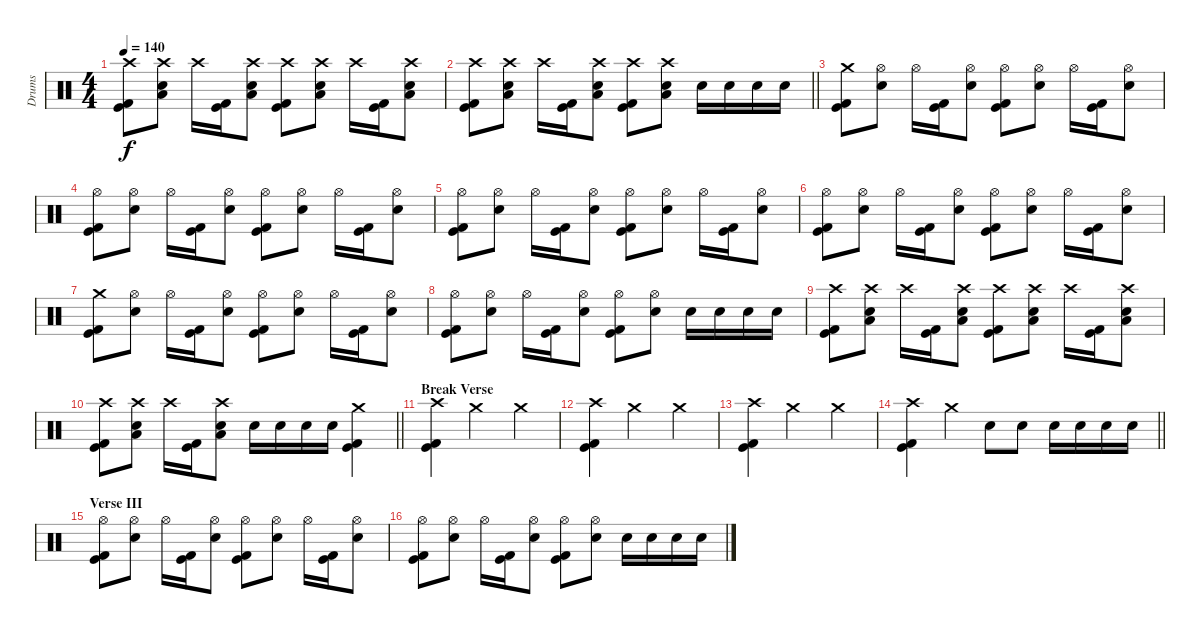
\track ("Drums" "Drums") {instrument percussion}
\staff {score}
\articulation defaults
\ts (4 4)
\tempo 140
\clef neutral
\ks c
("Crash high (hit)" "Kick (hit)" "Kick (hit) 2").8{dy f} ("Crash high (hit)" "Electric Snare (hit)" "Low Floor Tom (hit)").8 "Crash high (hit)".16 ("Kick (hit)" "Kick (hit) 2").16 ("Crash high (hit)" "Electric Snare (hit)" "Low Floor Tom (hit)").8 ("Crash high (hit)" "Kick (hit)" "Kick (hit) 2").8 ("Crash high (hit)" "Electric Snare (hit)" "Low Floor Tom (hit)").8 "Crash high (hit)".16 ("Kick (hit)" "Kick (hit) 2").16 ("Crash high (hit)" "Electric Snare (hit)" "Low Floor Tom (hit)").8 |
\barLineRight lightlight
("Crash high (hit)" "Kick (hit)" "Kick (hit) 2").8 ("Crash high (hit)" "Electric Snare (hit)" "Low Floor Tom (hit)").8 "Crash high (hit)".16 ("Kick (hit)" "Kick (hit) 2").16 ("Crash high (hit)" "Electric Snare (hit)" "Low Floor Tom (hit)").8 ("Crash high (hit)" "Kick (hit)" "Kick (hit) 2").8 ("Crash high (hit)" "Electric Snare (hit)" "Low Floor Tom (hit)").8 "Electric Snare (hit)".16 "Electric Snare (hit)".16 "Electric Snare (hit)".16 "Electric Snare (hit)".16 |
("Crash medium (hit)" "Kick (hit)" "Kick (hit) 2").8 ("Hi-Hat (open)" "Electric Snare (hit)").8 "Hi-Hat (open)".16 ("Kick (hit)" "Kick (hit) 2").16 ("Hi-Hat (open)" "Electric Snare (hit)").8 ("Hi-Hat (open)" "Kick (hit)" "Kick (hit) 2").8 ("Hi-Hat (open)" "Electric Snare (hit)").8 "Hi-Hat (open)".16 ("Kick (hit)" "Kick (hit) 2").16 ("Hi-Hat (open)" "Electric Snare (hit)").8 |
("Hi-Hat (open)" "Kick (hit)" "Kick (hit) 2").8 ("Hi-Hat (open)" "Electric Snare (hit)").8 "Hi-Hat (open)".16 ("Kick (hit)" "Kick (hit) 2").16 ("Hi-Hat (open)" "Electric Snare (hit)").8 ("Hi-Hat (open)" "Kick (hit)" "Kick (hit) 2").8 ("Hi-Hat (open)" "Electric Snare (hit)").8 "Hi-Hat (open)".16 ("Kick (hit)" "Kick (hit) 2").16 ("Hi-Hat (open)" "Electric Snare (hit)").8 |
("Hi-Hat (open)" "Kick (hit)" "Kick (hit) 2").8 ("Hi-Hat (open)" "Electric Snare (hit)").8 "Hi-Hat (open)".16 ("Kick (hit)" "Kick (hit) 2").16 ("Hi-Hat (open)" "Electric Snare (hit)").8 ("Hi-Hat (open)" "Kick (hit)" "Kick (hit) 2").8 ("Hi-Hat (open)" "Electric Snare (hit)").8 "Hi-Hat (open)".16 ("Kick (hit)" "Kick (hit) 2").16 ("Hi-Hat (open)" "Electric Snare (hit)").8 |
("Hi-Hat (open)" "Kick (hit)" "Kick (hit) 2").8 ("Hi-Hat (open)" "Electric Snare (hit)").8 "Hi-Hat (open)".16 ("Kick (hit)" "Kick (hit) 2").16 ("Hi-Hat (open)" "Electric Snare (hit)").8 ("Hi-Hat (open)" "Kick (hit)" "Kick (hit) 2").8 ("Hi-Hat (open)" "Electric Snare (hit)").8 "Hi-Hat (open)".16 ("Kick (hit)" "Kick (hit) 2").16 ("Hi-Hat (open)" "Electric Snare (hit)").8 |
("Crash medium (hit)" "Kick (hit)" "Kick (hit) 2").8 ("Hi-Hat (open)" "Electric Snare (hit)").8 "Hi-Hat (open)".16 ("Kick (hit)" "Kick (hit) 2").16 ("Hi-Hat (open)" "Electric Snare (hit)").8 ("Hi-Hat (open)" "Kick (hit)" "Kick (hit) 2").8 ("Hi-Hat (open)" "Electric Snare (hit)").8 "Hi-Hat (open)".16 ("Kick (hit)" "Kick (hit) 2").16 ("Hi-Hat (open)" "Electric Snare (hit)").8 |
("Hi-Hat (open)" "Kick (hit)" "Kick (hit) 2").8 ("Hi-Hat (open)" "Electric Snare (hit)").8 "Hi-Hat (open)".16 ("Kick (hit)" "Kick (hit) 2").16 ("Hi-Hat (open)" "Electric Snare (hit)").8 ("Hi-Hat (open)" "Kick (hit)" "Kick (hit) 2").8 ("Hi-Hat (open)" "Electric Snare (hit)").8 "Electric Snare (hit)".16 "Electric Snare (hit)".16 "Electric Snare (hit)".16 "Electric Snare (hit)".16 |
("Crash high (hit)" "Kick (hit)" "Kick (hit) 2").8 ("Crash high (hit)" "Electric Snare (hit)" "Low Floor Tom (hit)").8 "Crash high (hit)".16 ("Kick (hit)" "Kick (hit) 2").16 ("Crash high (hit)" "Electric Snare (hit)" "Low Floor Tom (hit)").8 ("Crash high (hit)" "Kick (hit)" "Kick (hit) 2").8 ("Crash high (hit)" "Electric Snare (hit)" "Low Floor Tom (hit)").8 "Crash high (hit)".16 ("Kick (hit)" "Kick (hit) 2").16 ("Crash high (hit)" "Electric Snare (hit)" "Low Floor Tom (hit)").8 |
\barLineRight lightlight
("Crash high (hit)" "Kick (hit)" "Kick (hit) 2").8 ("Crash high (hit)" "Electric Snare (hit)" "Low Floor Tom (hit)").8 "Crash high (hit)".16 ("Kick (hit)" "Kick (hit) 2").16 ("Crash high (hit)" "Electric Snare (hit)" "Low Floor Tom (hit)").8 "Electric Snare (hit)".16 "Electric Snare (hit)".16 "Electric Snare (hit)".16 "Electric Snare (hit)".16 ("Crash medium (hit)" "Kick (hit)" "Kick (hit) 2").4 |
\section ("" "Break Verse")
("Crash high (hit)" "Kick (hit)" "Kick (hit) 2").4 "Crash medium (hit)".2 "Crash medium (hit)".4 |
("Crash high (hit)" "Kick (hit)" "Kick (hit) 2").4 "Crash medium (hit)".2 "Crash medium (hit)".4 |
("Crash high (hit)" "Kick (hit)" "Kick (hit) 2").4 "Crash medium (hit)".2 "Crash medium (hit)".4 |
\barLineRight lightlight
("Crash high (hit)" "Kick (hit)" "Kick (hit) 2").4 "Crash medium (hit)".4 "Electric Snare (hit)".8 "Electric Snare (hit)".8 "Electric Snare (hit)".16 "Electric Snare (hit)".16 "Electric Snare (hit)".16 "Electric Snare (hit)".16 |
\section ("" "Verse III")
("Hi-Hat (open)" "Kick (hit)" "Kick (hit) 2").8 ("Hi-Hat (open)" "Electric Snare (hit)").8 "Hi-Hat (open)".16 ("Kick (hit)" "Kick (hit) 2").16 ("Hi-Hat (open)" "Electric Snare (hit)").8 ("Hi-Hat (open)" "Kick (hit)" "Kick (hit) 2").8 ("Hi-Hat (open)" "Electric Snare (hit)").8 "Hi-Hat (open)".16 ("Kick (hit)" "Kick (hit) 2").16 ("Hi-Hat (open)" "Electric Snare (hit)").8 |
("Hi-Hat (open)" "Kick (hit)" "Kick (hit) 2").8 ("Hi-Hat (open)" "Electric Snare (hit)").8 "Hi-Hat (open)".16 ("Kick (hit)" "Kick (hit) 2").16 ("Hi-Hat (open)" "Electric Snare (hit)").8 ("Hi-Hat (open)" "Kick (hit)" "Kick (hit) 2").8 ("Hi-Hat (open)" "Electric Snare (hit)").8 "Electric Snare (hit)".16 "Electric Snare (hit)".16 "Electric Snare (hit)".16 "Electric Snare (hit)".16
